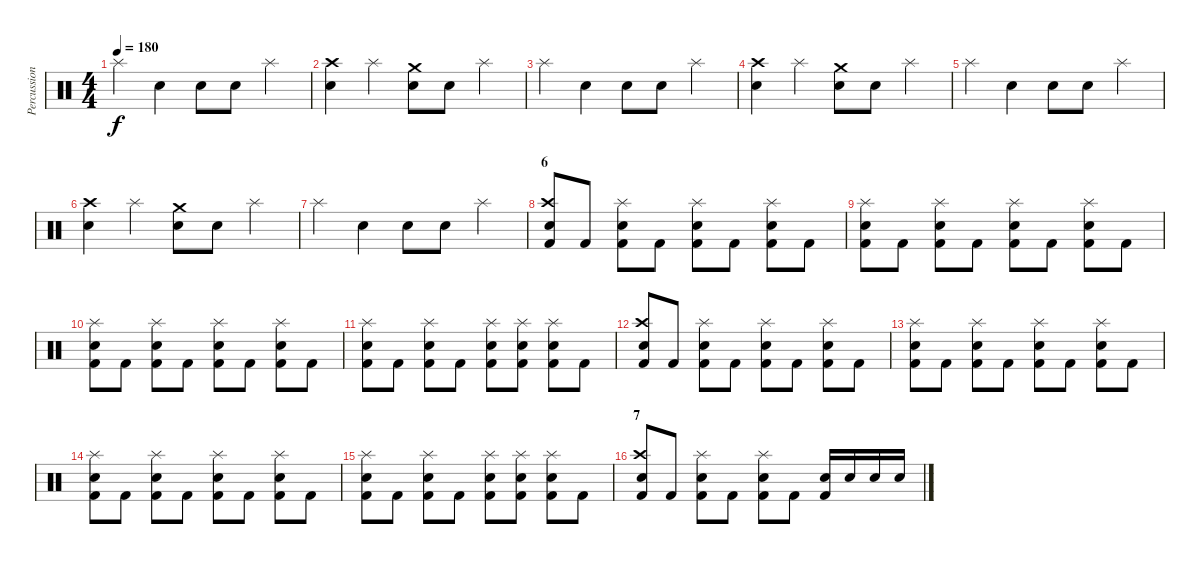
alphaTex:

\track ("Percussion" "Percussion") {instrument percussion}
\staff {score}
\articulation defaults
\ts (4 4)
\tempo 180
\clef neutral
\ks c "Splash (hit)".4{dy f} "Snare (hit) 2".4 "Snare (hit) 2".8 "Snare (hit) 2".8 "Splash (hit)".4
|
("Crash high (hit)" "Snare (hit) 2").4 "Splash (hit)".4 ("Crash medium (hit)" "Snare (hit) 2").8 "Snare (hit) 2".8 "Splash (hit)".4 |
"Splash (hit)".4 "Snare (hit) 2".4 "Snare (hit) 2".8 "Snare (hit) 2".8 "Splash (hit)".4 |
("Crash high (hit)" "Snare (hit) 2").4 "Splash (hit)".4 ("Crash medium (hit)" "Snare (hit) 2").8 "Snare (hit) 2".8 "Splash (hit)".4 |
"Splash (hit)".4 "Snare (hit) 2".4 "Snare (hit) 2".8 "Snare (hit) 2".8 "Splash (hit)".4 |
("Crash high (hit)" "Snare (hit) 2").4 "Splash (hit)".4 ("Crash medium (hit)" "Snare (hit) 2").8 "Snare (hit) 2".8 "Splash (hit)".4 |
"Splash (hit)".4 "Snare (hit) 2".4 "Snare (hit) 2".8 "Snare (hit) 2".8 "Splash (hit)".4 |
\section ("" "6")
("Crash high (hit)" "Snare (hit) 2" "Kick (hit) 2").8 "Kick (hit) 2".8 ("Splash (hit)" "Snare (hit) 2" "Kick (hit) 2").8 "Kick (hit) 2".8 ("Splash (hit)" "Snare (hit) 2" "Kick (hit) 2").8 "Kick (hit) 2".8 ("Splash (hit)" "Snare (hit) 2" "Kick (hit) 2").8 "Kick (hit) 2".8 |
("Splash (hit)" "Snare (hit) 2" "Kick (hit) 2").8 "Kick (hit) 2".8 ("Splash (hit)" "Snare (hit) 2" "Kick (hit) 2").8 "Kick (hit) 2".8 ("Splash (hit)" "Snare (hit) 2" "Kick (hit) 2").8 "Kick (hit) 2".8 ("Splash (hit)" "Snare (hit) 2" "Kick (hit) 2").8 "Kick (hit) 2".8 |
("Splash (hit)" "Snare (hit) 2" "Kick (hit) 2").8 "Kick (hit) 2".8 ("Splash (hit)" "Snare (hit) 2" "Kick (hit) 2").8 "Kick (hit) 2".8 ("Splash (hit)" "Snare (hit) 2" "Kick (hit) 2").8 "Kick (hit) 2".8 ("Splash (hit)" "Snare (hit) 2" "Kick (hit) 2").8 "Kick (hit) 2".8 |
("Splash (hit)" "Snare (hit) 2" "Kick (hit) 2").8 "Kick (hit) 2".8 ("Splash (hit)" "Snare (hit) 2" "Kick (hit) 2").8 "Kick (hit) 2".8 ("Splash (hit)" "Snare (hit) 2" "Kick (hit) 2").8 ("Splash (hit)" "Snare (hit) 2" "Kick (hit) 2").8 ("Splash (hit)" "Snare (hit) 2" "Kick (hit) 2").8 "Kick (hit) 2".8 |
("Crash high (hit)" "Snare (hit) 2" "Kick (hit) 2").8 "Kick (hit) 2".8 ("Splash (hit)" "Snare (hit) 2" "Kick (hit) 2").8 "Kick (hit) 2".8 ("Splash (hit)" "Snare (hit) 2" "Kick (hit) 2").8 "Kick (hit) 2".8 ("Splash (hit)" "Snare (hit) 2" "Kick (hit) 2").8 "Kick (hit) 2".8 |
("Splash (hit)" "Snare (hit) 2" "Kick (hit) 2").8 "Kick (hit) 2".8 ("Splash (hit)" "Snare (hit) 2" "Kick (hit) 2").8 "Kick (hit) 2".8 ("Splash (hit)" "Snare (hit) 2" "Kick (hit) 2").8 "Kick (hit) 2".8 ("Splash (hit)" "Snare (hit) 2" "Kick (hit) 2").8 "Kick (hit) 2".8 |
("Splash (hit)" "Snare (hit) 2" "Kick (hit) 2").8 "Kick (hit) 2".8 ("Splash (hit)" "Snare (hit) 2" "Kick (hit) 2").8 "Kick (hit) 2".8 ("Splash (hit)" "Snare (hit) 2" "Kick (hit) 2").8 "Kick (hit) 2".8 ("Splash (hit)" "Snare (hit) 2" "Kick (hit) 2").8 "Kick (hit) 2".8 |
("Splash (hit)" "Snare (hit) 2" "Kick (hit) 2").8 "Kick (hit) 2".8 ("Splash (hit)" "Snare (hit) 2" "Kick (hit) 2").8 "Kick (hit) 2".8 ("Splash (hit)" "Snare (hit) 2" "Kick (hit) 2").8 ("Splash (hit)" "Snare (hit) 2" "Kick (hit) 2").8 ("Splash (hit)" "Snare (hit) 2" "Kick (hit) 2").8 "Kick (hit) 2".8 |
\section ("" "7")
("Crash high (hit)" "Snare (hit) 2" "Kick (hit) 2").8 "Kick (hit) 2".8 ("Splash (hit)" "Snare (hit) 2" "Kick (hit) 2").8 "Kick (hit) 2".8 ("Splash (hit)" "Snare (hit) 2" "Kick (hit) 2").8 "Kick (hit) 2".8 ("Snare (hit) 2" "Kick (hit) 2").16 "Snare (hit) 2".16 "Snare (hit) 2".16 "Snare (hit) 2".16
